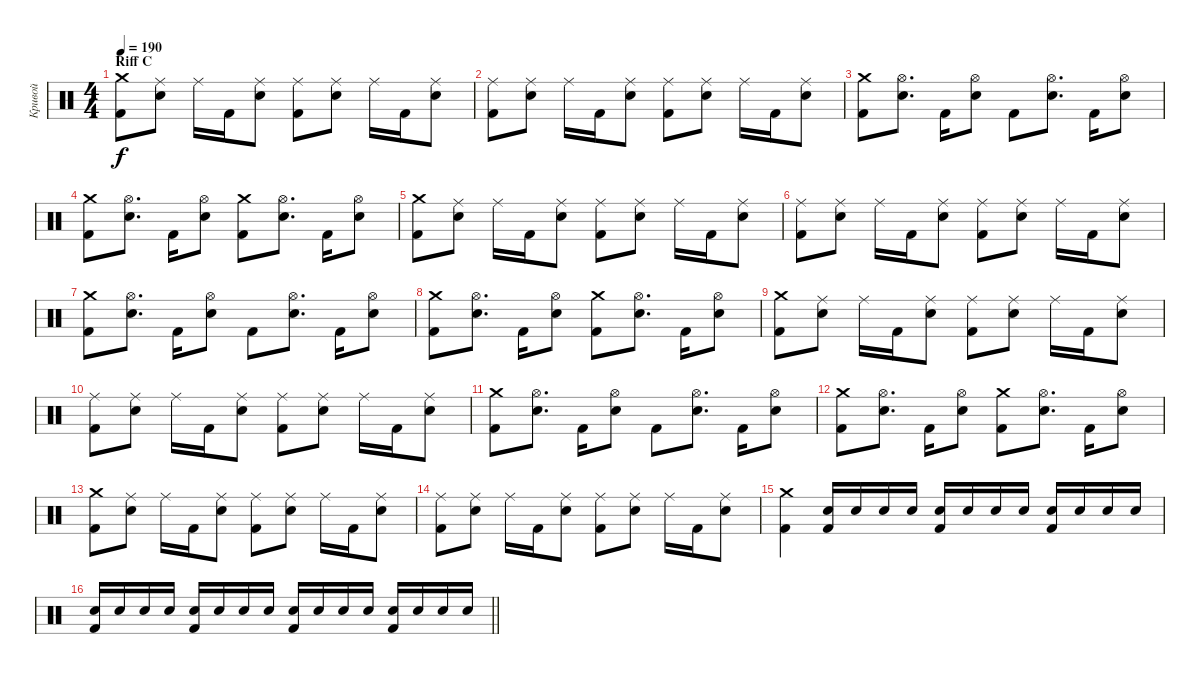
\track ("Кривой" "Кривой") {instrument percussion}
\staff {score}
\articulation defaults
\ts (4 4)
\section ("" "Riff C")
\tempo 190
\clef neutral
\ks c
("Crash medium (hit)" "Kick (hit) 2").8{dy f} ("Ride (middle)" "Electric Snare (hit)").8 "Ride (middle)".16 "Kick (hit) 2".16 ("Ride (middle)" "Electric Snare (hit)").8 ("Ride (middle)" "Kick (hit) 2").8 ("Ride (middle)" "Electric Snare (hit)").8 "Ride (middle)".16 "Kick (hit) 2".16 ("Ride (middle)" "Electric Snare (hit)").8 |
("Ride (middle)" "Kick (hit) 2").8 ("Ride (middle)" "Electric Snare (hit)").8 "Ride (middle)".16 "Kick (hit) 2".16 ("Ride (middle)" "Electric Snare (hit)").8 ("Ride (middle)" "Kick (hit) 2").8 ("Ride (middle)" "Electric Snare (hit)").8 "Ride (middle)".16 "Kick (hit) 2".16 ("Ride (middle)" "Electric Snare (hit)").8 |
("Crash medium (hit)" "Kick (hit) 2").8 ("Hi-Hat (open)" "Electric Snare (hit)").8{d} "Kick (hit) 2".16 ("Hi-Hat (open)" "Electric Snare (hit)").8 "Kick (hit) 2".8 ("Hi-Hat (open)" "Electric Snare (hit)").8{d} "Kick (hit) 2".16 ("Hi-Hat (open)" "Electric Snare (hit)").8 |
("Crash medium (hit)" "Kick (hit) 2").8 ("Hi-Hat (open)" "Electric Snare (hit)").8{d} "Kick (hit) 2".16 ("Hi-Hat (open)" "Electric Snare (hit)").8 ("Crash medium (hit)" "Kick (hit) 2").8 ("Hi-Hat (open)" "Electric Snare (hit)").8{d} "Kick (hit) 2".16 ("Hi-Hat (open)" "Electric Snare (hit)").8 |
("Crash medium (hit)" "Kick (hit) 2").8 ("Ride (middle)" "Electric Snare (hit)").8 "Ride (middle)".16 "Kick (hit) 2".16 ("Ride (middle)" "Electric Snare (hit)").8 ("Ride (middle)" "Kick (hit) 2").8 ("Ride (middle)" "Electric Snare (hit)").8 "Ride (middle)".16 "Kick (hit) 2".16 ("Ride (middle)" "Electric Snare (hit)").8 |
("Ride (middle)" "Kick (hit) 2").8 ("Ride (middle)" "Electric Snare (hit)").8 "Ride (middle)".16 "Kick (hit) 2".16 ("Ride (middle)" "Electric Snare (hit)").8 ("Ride (middle)" "Kick (hit) 2").8 ("Ride (middle)" "Electric Snare (hit)").8 "Ride (middle)".16 "Kick (hit) 2".16 ("Ride (middle)" "Electric Snare (hit)").8 |
("Crash medium (hit)" "Kick (hit) 2").8 ("Hi-Hat (open)" "Electric Snare (hit)").8{d} "Kick (hit) 2".16 ("Hi-Hat (open)" "Electric Snare (hit)").8 "Kick (hit) 2".8 ("Hi-Hat (open)" "Electric Snare (hit)").8{d} "Kick (hit) 2".16 ("Hi-Hat (open)" "Electric Snare (hit)").8 |
("Crash medium (hit)" "Kick (hit) 2").8 ("Hi-Hat (open)" "Electric Snare (hit)").8{d} "Kick (hit) 2".16 ("Hi-Hat (open)" "Electric Snare (hit)").8 ("Crash medium (hit)" "Kick (hit) 2").8 ("Hi-Hat (open)" "Electric Snare (hit)").8{d} "Kick (hit) 2".16 ("Hi-Hat (open)" "Electric Snare (hit)").8 |
("Crash medium (hit)" "Kick (hit) 2").8 ("Ride (middle)" "Electric Snare (hit)").8 "Ride (middle)".16 "Kick (hit) 2".16 ("Ride (middle)" "Electric Snare (hit)").8 ("Ride (middle)" "Kick (hit) 2").8 ("Ride (middle)" "Electric Snare (hit)").8 "Ride (middle)".16 "Kick (hit) 2".16 ("Ride (middle)" "Electric Snare (hit)").8 |
("Ride (middle)" "Kick (hit) 2").8 ("Ride (middle)" "Electric Snare (hit)").8 "Ride (middle)".16 "Kick (hit) 2".16 ("Ride (middle)" "Electric Snare (hit)").8 ("Ride (middle)" "Kick (hit) 2").8 ("Ride (middle)" "Electric Snare (hit)").8 "Ride (middle)".16 "Kick (hit) 2".16 ("Ride (middle)" "Electric Snare (hit)").8 |
("Crash medium (hit)" "Kick (hit) 2").8 ("Hi-Hat (open)" "Electric Snare (hit)").8{d} "Kick (hit) 2".16 ("Hi-Hat (open)" "Electric Snare (hit)").8 "Kick (hit) 2".8 ("Hi-Hat (open)" "Electric Snare (hit)").8{d} "Kick (hit) 2".16 ("Hi-Hat (open)" "Electric Snare (hit)").8 |
("Crash medium (hit)" "Kick (hit) 2").8 ("Hi-Hat (open)" "Electric Snare (hit)").8{d} "Kick (hit) 2".16 ("Hi-Hat (open)" "Electric Snare (hit)").8 ("Crash medium (hit)" "Kick (hit) 2").8 ("Hi-Hat (open)" "Electric Snare (hit)").8{d} "Kick (hit) 2".16 ("Hi-Hat (open)" "Electric Snare (hit)").8 |
("Crash medium (hit)" "Kick (hit) 2").8 ("Ride (middle)" "Electric Snare (hit)").8 "Ride (middle)".16 "Kick (hit) 2".16 ("Ride (middle)" "Electric Snare (hit)").8 ("Ride (middle)" "Kick (hit) 2").8 ("Ride (middle)" "Electric Snare (hit)").8 "Ride (middle)".16 "Kick (hit) 2".16 ("Ride (middle)" "Electric Snare (hit)").8 |
("Ride (middle)" "Kick (hit) 2").8 ("Ride (middle)" "Electric Snare (hit)").8 "Ride (middle)".16 "Kick (hit) 2".16 ("Ride (middle)" "Electric Snare (hit)").8 ("Ride (middle)" "Kick (hit) 2").8 ("Ride (middle)" "Electric Snare (hit)").8 "Ride (middle)".16 "Kick (hit) 2".16 ("Ride (middle)" "Electric Snare (hit)").8 |
("Crash medium (hit)" "Kick (hit) 2").4 ("Electric Snare (hit)" "Kick (hit) 2").16 "Electric Snare (hit)".16 "Electric Snare (hit)".16 "Electric Snare (hit)".16 ("Electric Snare (hit)" "Kick (hit) 2").16 "Electric Snare (hit)".16 "Electric Snare (hit)".16 "Electric Snare (hit)".16 ("Electric Snare (hit)" "Kick (hit) 2").16 "Electric Snare (hit)".16 "Electric Snare (hit)".16 "Electric Snare (hit)".16 |
\barLineRight lightlight
("Electric Snare (hit)" "Kick (hit) 2").16 "Electric Snare (hit)".16 "Electric Snare (hit)".16 "Electric Snare (hit)".16 ("Electric Snare (hit)" "Kick (hit) 2").16 "Electric Snare (hit)".16 "Electric Snare (hit)".16 "Electric Snare (hit)".16 ("Electric Snare (hit)" "Kick (hit) 2").16 "Electric Snare (hit)".16 "Electric Snare (hit)".16 "Electric Snare (hit)".16 ("Electric Snare (hit)" "Kick (hit) 2").16 "Electric Snare (hit)".16 "Electric Snare (hit)".16 "Electric Snare (hit)".16
